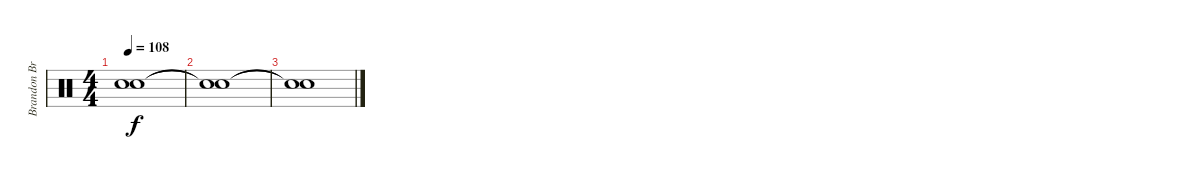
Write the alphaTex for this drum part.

\track ("Brandon Brown (Drums)" "Brandon Br") {instrument percussion}
\staff {score}
\articulation defaults
\ts (4 4)
\tempo 108
\clef neutral
\ks c
("Snare (hit)"{t} "Snare (hit)"{t}).1{dy f} |
("Snare (hit)"{t} "Snare (hit)"{t}).1 |
("Snare (hit)"{t} "Snare (hit)"{t}).1
